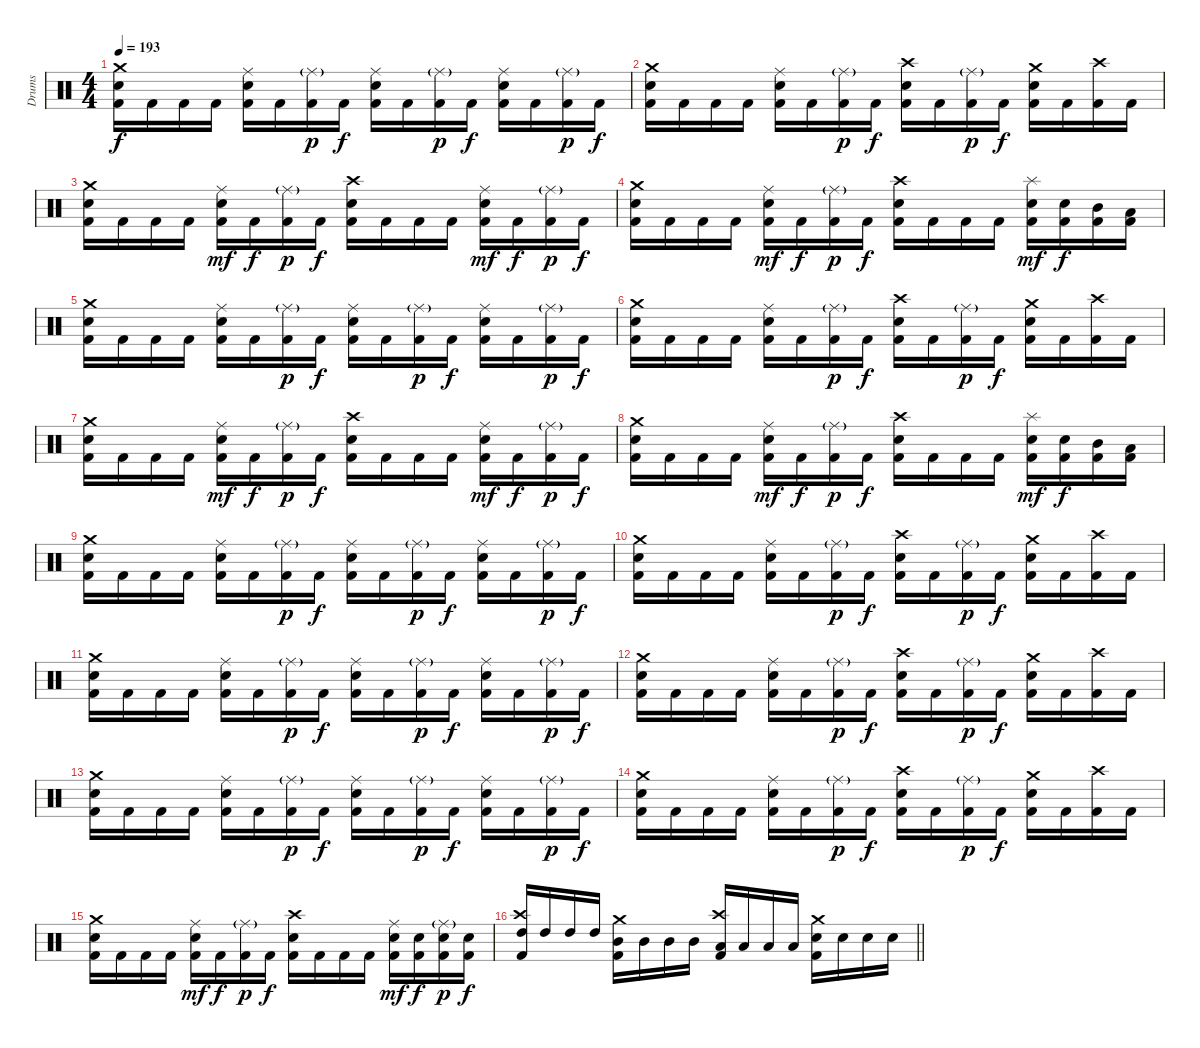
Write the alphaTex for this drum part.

\track ("Drums" "Drums") {instrument percussion}
\staff {score}
\articulation defaults
\ts (4 4)
\tempo 193
\clef neutral
\ks c
("Crash medium (hit)" "Snare (hit) 2" "Kick (hit) 2").16{dy f} "Kick (hit) 2".16 "Kick (hit) 2".16 "Kick (hit) 2".16 ("Ride (middle)" "Snare (hit) 2" "Kick (hit) 2").16 "Kick (hit) 2".16 ("Ride (middle)"{g} "Kick (hit) 2").16{dy p} "Kick (hit) 2".16{dy f} ("Ride (middle)" "Snare (hit) 2" "Kick (hit) 2").16 "Kick (hit) 2".16 ("Ride (middle)"{g} "Kick (hit) 2").16{dy p} "Kick (hit) 2".16{dy f} ("Ride (middle)" "Snare (hit) 2" "Kick (hit) 2").16 "Kick (hit) 2".16 ("Ride (middle)"{g} "Kick (hit) 2").16{dy p} "Kick (hit) 2".16{dy f} |
("Crash medium (hit)" "Snare (hit) 2" "Kick (hit) 2").16 "Kick (hit) 2".16 "Kick (hit) 2".16 "Kick (hit) 2".16 ("Ride (middle)" "Snare (hit) 2" "Kick (hit) 2").16 "Kick (hit) 2".16 ("Ride (middle)"{g} "Kick (hit) 2").16{dy p} "Kick (hit) 2".16{dy f} ("Crash high (hit)" "Snare (hit) 2" "Kick (hit) 2").16 "Kick (hit) 2".16 ("Ride (middle)"{g} "Kick (hit) 2").16{dy p} "Kick (hit) 2".16{dy f} ("Crash medium (hit)" "Snare (hit) 2" "Kick (hit) 2").16 "Kick (hit) 2".16 ("Crash high (hit)" "Kick (hit) 2").16 "Kick (hit) 2".16 |
("Crash medium (hit)" "Snare (hit) 2" "Kick (hit) 2").16 "Kick (hit) 2".16 "Kick (hit) 2".16 "Kick (hit) 2".16 ("Ride (middle)" "Snare (hit) 2" "Kick (hit) 2").16{dy mf} "Kick (hit) 2".16{dy f} ("Ride (middle)"{g} "Kick (hit) 2").16{dy p} "Kick (hit) 2".16{dy f} ("Crash high (hit)" "Snare (hit) 2" "Kick (hit) 2").16 "Kick (hit) 2".16 "Kick (hit) 2".16 "Kick (hit) 2".16 ("Ride (middle)" "Snare (hit) 2" "Kick (hit) 2").16{dy mf} "Kick (hit) 2".16{dy f} ("Ride (middle)"{g} "Kick (hit) 2").16{dy p} "Kick (hit) 2".16{dy f} |
("Crash medium (hit)" "Snare (hit) 2" "Kick (hit) 2").16 "Kick (hit) 2".16 "Kick (hit) 2".16 "Kick (hit) 2".16 ("Ride (middle)" "Snare (hit) 2" "Kick (hit) 2").16{dy mf} "Kick (hit) 2".16{dy f} ("Ride (middle)"{g} "Kick (hit) 2").16{dy p} "Kick (hit) 2".16{dy f} ("Crash high (hit)" "Snare (hit) 2" "Kick (hit) 2").16 "Kick (hit) 2".16 "Kick (hit) 2".16 "Kick (hit) 2".16 ("Splash (hit)" "Snare (hit) 2" "Kick (hit) 2").16{dy mf} ("Snare (hit) 2" "Kick (hit) 2").16{dy f} ("Mid Tom (hit)" "Kick (hit) 2").16 ("Low Tom (hit)" "Kick (hit) 2").16 |
("Crash medium (hit)" "Snare (hit) 2" "Kick (hit) 2").16 "Kick (hit) 2".16 "Kick (hit) 2".16 "Kick (hit) 2".16 ("Ride (middle)" "Snare (hit) 2" "Kick (hit) 2").16 "Kick (hit) 2".16 ("Ride (middle)"{g} "Kick (hit) 2").16{dy p} "Kick (hit) 2".16{dy f} ("Ride (middle)" "Snare (hit) 2" "Kick (hit) 2").16 "Kick (hit) 2".16 ("Ride (middle)"{g} "Kick (hit) 2").16{dy p} "Kick (hit) 2".16{dy f} ("Ride (middle)" "Snare (hit) 2" "Kick (hit) 2").16 "Kick (hit) 2".16 ("Ride (middle)"{g} "Kick (hit) 2").16{dy p} "Kick (hit) 2".16{dy f} |
("Crash medium (hit)" "Snare (hit) 2" "Kick (hit) 2").16 "Kick (hit) 2".16 "Kick (hit) 2".16 "Kick (hit) 2".16 ("Ride (middle)" "Snare (hit) 2" "Kick (hit) 2").16 "Kick (hit) 2".16 ("Ride (middle)"{g} "Kick (hit) 2").16{dy p} "Kick (hit) 2".16{dy f} ("Crash high (hit)" "Snare (hit) 2" "Kick (hit) 2").16 "Kick (hit) 2".16 ("Ride (middle)"{g} "Kick (hit) 2").16{dy p} "Kick (hit) 2".16{dy f} ("Crash medium (hit)" "Snare (hit) 2" "Kick (hit) 2").16 "Kick (hit) 2".16 ("Crash high (hit)" "Kick (hit) 2").16 "Kick (hit) 2".16 |
("Crash medium (hit)" "Snare (hit) 2" "Kick (hit) 2").16 "Kick (hit) 2".16 "Kick (hit) 2".16 "Kick (hit) 2".16 ("Ride (middle)" "Snare (hit) 2" "Kick (hit) 2").16{dy mf} "Kick (hit) 2".16{dy f} ("Ride (middle)"{g} "Kick (hit) 2").16{dy p} "Kick (hit) 2".16{dy f} ("Crash high (hit)" "Snare (hit) 2" "Kick (hit) 2").16 "Kick (hit) 2".16 "Kick (hit) 2".16 "Kick (hit) 2".16 ("Ride (middle)" "Snare (hit) 2" "Kick (hit) 2").16{dy mf} "Kick (hit) 2".16{dy f} ("Ride (middle)"{g} "Kick (hit) 2").16{dy p} "Kick (hit) 2".16{dy f} |
("Crash medium (hit)" "Snare (hit) 2" "Kick (hit) 2").16 "Kick (hit) 2".16 "Kick (hit) 2".16 "Kick (hit) 2".16 ("Ride (middle)" "Snare (hit) 2" "Kick (hit) 2").16{dy mf} "Kick (hit) 2".16{dy f} ("Ride (middle)"{g} "Kick (hit) 2").16{dy p} "Kick (hit) 2".16{dy f} ("Crash high (hit)" "Snare (hit) 2" "Kick (hit) 2").16 "Kick (hit) 2".16 "Kick (hit) 2".16 "Kick (hit) 2".16 ("Splash (hit)" "Snare (hit) 2" "Kick (hit) 2").16{dy mf} ("Snare (hit) 2" "Kick (hit) 2").16{dy f} ("Mid Tom (hit)" "Kick (hit) 2").16 ("Low Tom (hit)" "Kick (hit) 2").16 |
("Crash medium (hit)" "Snare (hit) 2" "Kick (hit) 2").16 "Kick (hit) 2".16 "Kick (hit) 2".16 "Kick (hit) 2".16 ("Ride (middle)" "Snare (hit) 2" "Kick (hit) 2").16 "Kick (hit) 2".16 ("Ride (middle)"{g} "Kick (hit) 2").16{dy p} "Kick (hit) 2".16{dy f} ("Ride (middle)" "Snare (hit) 2" "Kick (hit) 2").16 "Kick (hit) 2".16 ("Ride (middle)"{g} "Kick (hit) 2").16{dy p} "Kick (hit) 2".16{dy f} ("Ride (middle)" "Snare (hit) 2" "Kick (hit) 2").16 "Kick (hit) 2".16 ("Ride (middle)"{g} "Kick (hit) 2").16{dy p} "Kick (hit) 2".16{dy f} |
("Crash medium (hit)" "Snare (hit) 2" "Kick (hit) 2").16 "Kick (hit) 2".16 "Kick (hit) 2".16 "Kick (hit) 2".16 ("Ride (middle)" "Snare (hit) 2" "Kick (hit) 2").16 "Kick (hit) 2".16 ("Ride (middle)"{g} "Kick (hit) 2").16{dy p} "Kick (hit) 2".16{dy f} ("Crash high (hit)" "Snare (hit) 2" "Kick (hit) 2").16 "Kick (hit) 2".16 ("Ride (middle)"{g} "Kick (hit) 2").16{dy p} "Kick (hit) 2".16{dy f} ("Crash medium (hit)" "Snare (hit) 2" "Kick (hit) 2").16 "Kick (hit) 2".16 ("Crash high (hit)" "Kick (hit) 2").16 "Kick (hit) 2".16 |
("Crash medium (hit)" "Snare (hit) 2" "Kick (hit) 2").16 "Kick (hit) 2".16 "Kick (hit) 2".16 "Kick (hit) 2".16 ("Ride (middle)" "Snare (hit) 2" "Kick (hit) 2").16 "Kick (hit) 2".16 ("Ride (middle)"{g} "Kick (hit) 2").16{dy p} "Kick (hit) 2".16{dy f} ("Ride (middle)" "Snare (hit) 2" "Kick (hit) 2").16 "Kick (hit) 2".16 ("Ride (middle)"{g} "Kick (hit) 2").16{dy p} "Kick (hit) 2".16{dy f} ("Ride (middle)" "Snare (hit) 2" "Kick (hit) 2").16 "Kick (hit) 2".16 ("Ride (middle)"{g} "Kick (hit) 2").16{dy p} "Kick (hit) 2".16{dy f} |
("Crash medium (hit)" "Snare (hit) 2" "Kick (hit) 2").16 "Kick (hit) 2".16 "Kick (hit) 2".16 "Kick (hit) 2".16 ("Ride (middle)" "Snare (hit) 2" "Kick (hit) 2").16 "Kick (hit) 2".16 ("Ride (middle)"{g} "Kick (hit) 2").16{dy p} "Kick (hit) 2".16{dy f} ("Crash high (hit)" "Snare (hit) 2" "Kick (hit) 2").16 "Kick (hit) 2".16 ("Ride (middle)"{g} "Kick (hit) 2").16{dy p} "Kick (hit) 2".16{dy f} ("Crash medium (hit)" "Snare (hit) 2" "Kick (hit) 2").16 "Kick (hit) 2".16 ("Crash high (hit)" "Kick (hit) 2").16 "Kick (hit) 2".16 |
("Crash medium (hit)" "Snare (hit) 2" "Kick (hit) 2").16 "Kick (hit) 2".16 "Kick (hit) 2".16 "Kick (hit) 2".16 ("Ride (middle)" "Snare (hit) 2" "Kick (hit) 2").16 "Kick (hit) 2".16 ("Ride (middle)"{g} "Kick (hit) 2").16{dy p} "Kick (hit) 2".16{dy f} ("Ride (middle)" "Snare (hit) 2" "Kick (hit) 2").16 "Kick (hit) 2".16 ("Ride (middle)"{g} "Kick (hit) 2").16{dy p} "Kick (hit) 2".16{dy f} ("Ride (middle)" "Snare (hit) 2" "Kick (hit) 2").16 "Kick (hit) 2".16 ("Ride (middle)"{g} "Kick (hit) 2").16{dy p} "Kick (hit) 2".16{dy f} |
("Crash medium (hit)" "Snare (hit) 2" "Kick (hit) 2").16 "Kick (hit) 2".16 "Kick (hit) 2".16 "Kick (hit) 2".16 ("Ride (middle)" "Snare (hit) 2" "Kick (hit) 2").16 "Kick (hit) 2".16 ("Ride (middle)"{g} "Kick (hit) 2").16{dy p} "Kick (hit) 2".16{dy f} ("Crash high (hit)" "Snare (hit) 2" "Kick (hit) 2").16 "Kick (hit) 2".16 ("Ride (middle)"{g} "Kick (hit) 2").16{dy p} "Kick (hit) 2".16{dy f} ("Crash medium (hit)" "Snare (hit) 2" "Kick (hit) 2").16 "Kick (hit) 2".16 ("Crash high (hit)" "Kick (hit) 2").16 "Kick (hit) 2".16 |
("Crash medium (hit)" "Snare (hit) 2" "Kick (hit) 2").16 "Kick (hit) 2".16 "Kick (hit) 2".16 "Kick (hit) 2".16 ("Ride (middle)" "Snare (hit) 2" "Kick (hit) 2").16{dy mf} "Kick (hit) 2".16{dy f} ("Ride (middle)"{g} "Kick (hit) 2").16{dy p} "Kick (hit) 2".16{dy f} ("Crash high (hit)" "Snare (hit) 2" "Kick (hit) 2").16 "Kick (hit) 2".16 "Kick (hit) 2".16 "Kick (hit) 2".16 ("Ride (middle)" "Snare (hit) 2" "Kick (hit) 2").16{dy mf} ("Snare (hit) 2" "Kick (hit) 2").16{dy f} ("Ride (middle)"{g} "Snare (hit) 2" "Kick (hit) 2").16{dy p} ("Snare (hit) 2" "Kick (hit) 2").16{dy f} |
\barLineRight lightlight
("Crash high (hit)" "High Tom (hit)" "Kick (hit) 2").16 "High Tom (hit)".16 "High Tom (hit)".16 "High Tom (hit)".16 ("Crash medium (hit)" "Mid Tom (hit)" "Kick (hit) 2").16 "Mid Tom (hit)".16 "Mid Tom (hit)".16 "Mid Tom (hit)".16 ("Crash high (hit)" "Low Tom (hit)" "Kick (hit) 2").16 "Low Tom (hit)".16 "Low Tom (hit)".16 "Low Tom (hit)".16 ("Crash medium (hit)" "Snare (hit) 2" "Kick (hit) 2").16 "Snare (hit) 2".16 "Snare (hit) 2".16 "Snare (hit) 2".16
